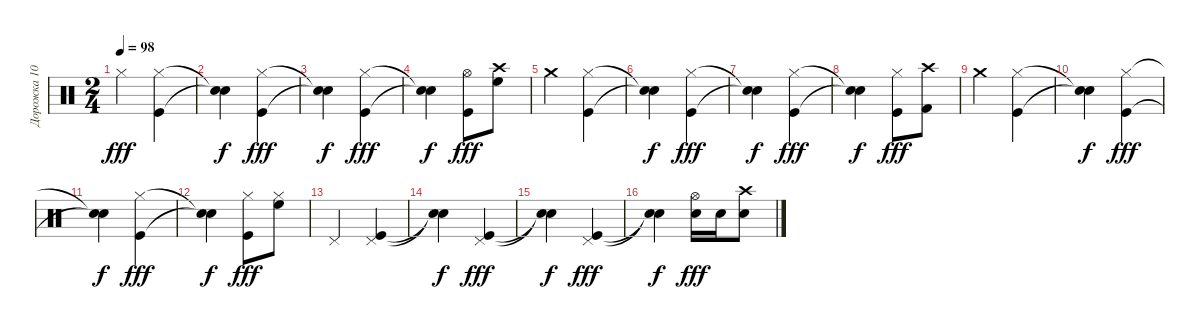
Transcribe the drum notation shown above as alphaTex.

\track ("Дорожка 10" "Дорожка 10") {instrument percussion}
\staff {score}
\articulation defaults
\ts (2 4)
\tempo 98
\clef neutral
\ks c "Hi-Hat (closed)".4{dy fff}
("Kick (hit)" "Hi-Hat (closed)").4 |
("Snare (hit)"{t} "Snare (hit)"{t}).4{dy f} ("Kick (hit)" "Hi-Hat (closed)").4{dy fff} |
("Snare (hit)"{t} "Snare (hit)"{t}).4{dy f} ("Kick (hit)" "Hi-Hat (closed)").4{dy fff} |
("Snare (hit)"{t} "Snare (hit)"{t}).4{dy f} ("Kick (hit)" "Hi-Hat (open)").8{dy fff} ("High Floor Tom (hit)" "Crash high (hit)").8 |
"Crash medium (hit)".4 ("Kick (hit)" "Hi-Hat (closed)").4 |
("Snare (hit)"{t} "Snare (hit)"{t}).4{dy f} ("Kick (hit)" "Hi-Hat (closed)").4{dy fff} |
("Snare (hit)"{t} "Snare (hit)"{t}).4{dy f} ("Kick (hit)" "Hi-Hat (closed)").4{dy fff} |
("Snare (hit)"{t} "Snare (hit)"{t}).4{dy f} ("Kick (hit)" "Hi-Hat (closed)").8{dy fff} ("Kick (hit) 2" "Crash high (hit)").8 |
"Crash medium (hit)".4 ("Kick (hit)" "Hi-Hat (closed)").4 |
("Snare (hit)"{t} "Snare (hit)"{t}).4{dy f} ("Kick (hit)" "Hi-Hat (closed)").4{dy fff} |
("Snare (hit)"{t} "Snare (hit)"{t}).4{dy f} ("Kick (hit)" "Hi-Hat (closed)").4{dy fff} |
("Snare (hit)"{t} "Snare (hit)"{t}).4{dy f} ("Kick (hit)" "Hi-Hat (closed)").8{dy fff} ("High Floor Tom (hit)" "Hi-Hat (closed)").8 |
"Pedal Hi-Hat (hit)".4 ("Kick (hit)" "Pedal Hi-Hat (hit)").4 |
("Snare (hit)"{t} "Snare (hit)"{t}).4{dy f} ("Kick (hit)" "Pedal Hi-Hat (hit)").4{dy fff} |
("Snare (hit)"{t} "Snare (hit)"{t}).4{dy f} ("Kick (hit)" "Pedal Hi-Hat (hit)").4{dy fff} |
("Snare (hit)"{t} "Snare (hit)"{t}).4{dy f} ("Snare (hit) 2" "Hi-Hat (open)").16{dy fff} "Snare (hit) 2".16 ("Snare (hit) 2" "Crash high (hit)").8
